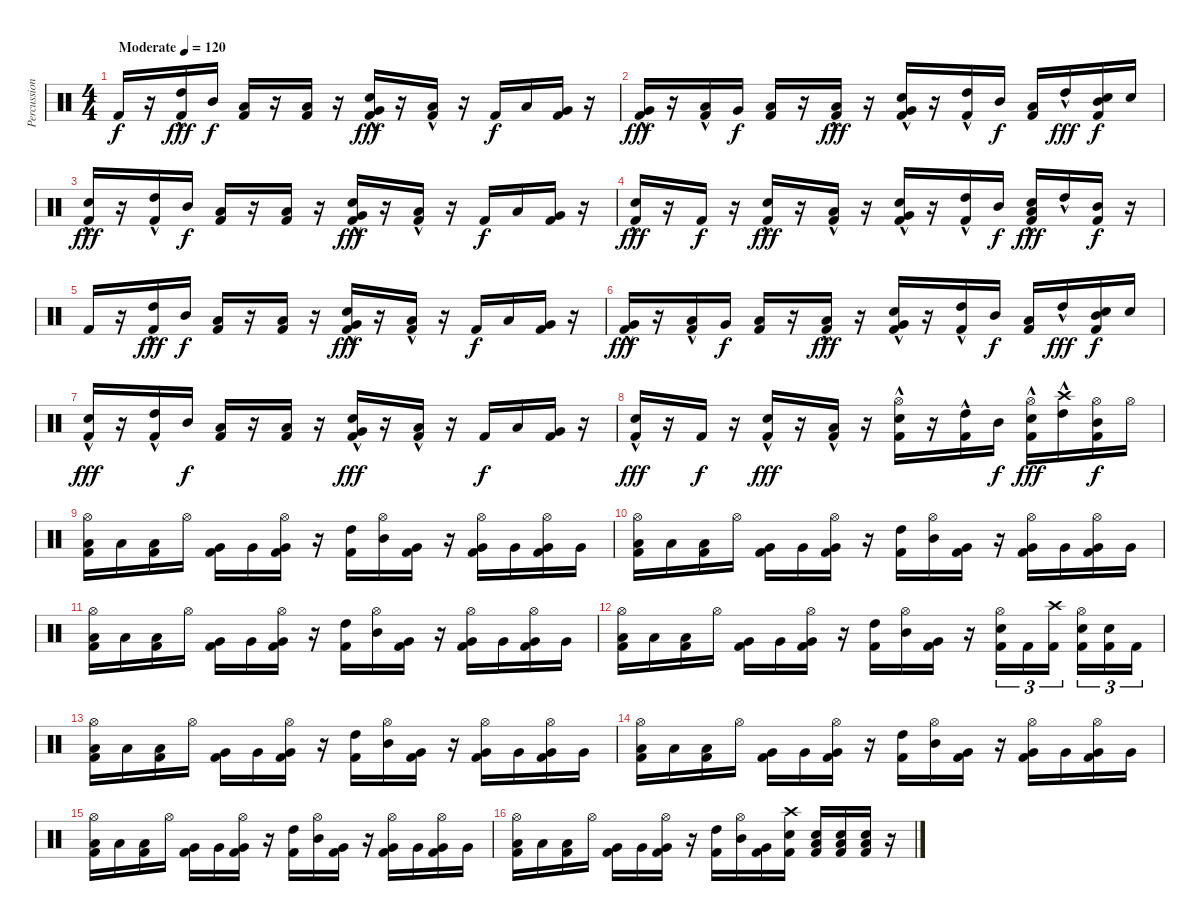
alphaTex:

\track ("Percussion" "Percussion") {instrument percussion}
\staff {score}
\articulation defaults
\ts (4 4)
\tempo (120 "Moderate")
\clef neutral
\ks c "Kick (hit) 2".16{dy f}
r.16 ("High Tom (hit)"{hac} "Kick (hit) 2").16{dy fff} "Mid Tom (hit)".16{dy f} ("Low Tom (hit)" "Kick (hit) 2").16 r.16 ("Low Tom (hit)" "Kick (hit) 2").16 r.16 ("Very Low Tom (hit)"{hac} "Electric Snare (hit)"{hac} "Kick (hit) 2").16{dy fff} r.16 ("Low Tom (hit)"{hac} "Kick (hit) 2").16 r.16 "Kick (hit) 2".16{dy f} "Low Floor Tom (hit)".16 ("Very Low Tom (hit)" "Kick (hit) 2").16 r.16 |
("Very Low Tom (hit)"{hac} "Kick (hit) 2").16{dy fff} r.16 ("Low Tom (hit)"{hac} "Kick (hit) 2").16 "Very Low Tom (hit)".16{dy f} ("Low Floor Tom (hit)" "Kick (hit) 2").16 r.16 ("Low Floor Tom (hit)"{hac} "Kick (hit) 2").16{dy fff} r.16 ("Very Low Tom (hit)"{hac} "Electric Snare (hit)"{hac} "Kick (hit) 2").16 r.16 ("High Tom (hit)"{hac} "Kick (hit) 2").16 "Mid Tom (hit)".16{dy f} ("Low Tom (hit)" "Kick (hit) 2").16 "High Tom (hit)"{hac}.16{dy fff} ("Mid Tom (hit)" "Electric Snare (hit)" "Kick (hit) 2").16{dy f} "Electric Snare (hit)".16 |
("Electric Snare (hit)"{hac} "Kick (hit) 2").16{dy fff} r.16 ("High Tom (hit)"{hac} "Kick (hit) 2").16 "Mid Tom (hit)".16{dy f} ("Low Tom (hit)" "Kick (hit) 2").16 r.16 ("Low Tom (hit)" "Kick (hit) 2").16 r.16 ("Very Low Tom (hit)"{hac} "Electric Snare (hit)"{hac} "Kick (hit) 2").16{dy fff} r.16 ("Low Tom (hit)"{hac} "Kick (hit) 2").16 r.16 "Kick (hit) 2".16{dy f} "Low Floor Tom (hit)".16 ("Very Low Tom (hit)" "Kick (hit) 2").16 r.16 |
("Electric Snare (hit)"{hac} "Kick (hit) 2").16{dy fff} r.16 "Kick (hit) 2".16{dy f} r.16 ("Electric Snare (hit)"{hac} "Kick (hit) 2").16{dy fff} r.16 ("Low Floor Tom (hit)"{hac} "Kick (hit) 2").16 r.16 ("Very Low Tom (hit)"{hac} "Electric Snare (hit)"{hac} "Kick (hit) 2").16 r.16 ("High Tom (hit)"{hac} "Kick (hit) 2").16 "Mid Tom (hit)".16{dy f} ("Low Tom (hit)" "Electric Snare (hit)"{hac} "Kick (hit) 2").16{dy fff} "High Tom (hit)"{hac}.16 ("Mid Tom (hit)" "Kick (hit) 2").16{dy f} r.16 |
"Kick (hit) 2".16 r.16 ("High Tom (hit)"{hac} "Kick (hit) 2").16{dy fff} "Mid Tom (hit)".16{dy f} ("Low Tom (hit)" "Kick (hit) 2").16 r.16 ("Low Tom (hit)" "Kick (hit) 2").16 r.16 ("Very Low Tom (hit)"{hac} "Electric Snare (hit)"{hac} "Kick (hit) 2").16{dy fff} r.16 ("Low Tom (hit)"{hac} "Kick (hit) 2").16 r.16 "Kick (hit) 2".16{dy f} "Low Floor Tom (hit)".16 ("Very Low Tom (hit)" "Kick (hit) 2").16 r.16 |
("Very Low Tom (hit)"{hac} "Kick (hit) 2").16{dy fff} r.16 ("Low Tom (hit)"{hac} "Kick (hit) 2").16 "Very Low Tom (hit)".16{dy f} ("Low Floor Tom (hit)" "Kick (hit) 2").16 r.16 ("Low Floor Tom (hit)"{hac} "Kick (hit) 2").16{dy fff} r.16 ("Very Low Tom (hit)"{hac} "Electric Snare (hit)"{hac} "Kick (hit) 2").16 r.16 ("High Tom (hit)"{hac} "Kick (hit) 2").16 "Mid Tom (hit)".16{dy f} ("Low Tom (hit)" "Kick (hit) 2").16 "High Tom (hit)"{hac}.16{dy fff} ("Mid Tom (hit)" "Electric Snare (hit)" "Kick (hit) 2").16{dy f} "Electric Snare (hit)".16 |
("Electric Snare (hit)"{hac} "Kick (hit) 2").16{dy fff} r.16 ("High Tom (hit)"{hac} "Kick (hit) 2").16 "Mid Tom (hit)".16{dy f} ("Low Tom (hit)" "Kick (hit) 2").16 r.16 ("Low Tom (hit)" "Kick (hit) 2").16 r.16 ("Very Low Tom (hit)"{hac} "Electric Snare (hit)"{hac} "Kick (hit) 2").16{dy fff} r.16 ("Low Tom (hit)"{hac} "Kick (hit) 2").16 r.16 "Kick (hit) 2".16{dy f} "Low Floor Tom (hit)".16 ("Very Low Tom (hit)" "Kick (hit) 2").16 r.16 |
("Electric Snare (hit)"{hac} "Kick (hit) 2").16{dy fff} r.16 "Kick (hit) 2".16{dy f} r.16 ("Electric Snare (hit)"{hac} "Kick (hit) 2").16{dy fff} r.16 ("Low Floor Tom (hit)"{hac} "Kick (hit) 2").16 r.16 ("Electric Snare (hit)"{hac} "Hi-Hat (open)" "Kick (hit) 2").16 r.16 ("High Tom (hit)"{hac} "Kick (hit) 2").16 "Mid Tom (hit)".16{dy f} ("Electric Snare (hit)"{hac} "Hi-Hat (open)" "Kick (hit) 2").16{dy fff} ("High Tom (hit)"{hac} "Crash high (hit)").16 ("Mid Tom (hit)" "Hi-Hat (open)" "Kick (hit) 2").16{dy f} "Hi-Hat (open)".16 |
("Low Tom (hit)" "Hi-Hat (open)" "Kick (hit) 2").16 "Low Tom (hit)".16 ("Low Tom (hit)" "Kick (hit) 2").16 "Hi-Hat (open)".16 ("Very Low Tom (hit)" "Kick (hit) 2").16 "Very Low Tom (hit)".16 ("Very Low Tom (hit)" "Hi-Hat (open)" "Kick (hit) 2").16 r.16 ("High Tom (hit)" "Kick (hit) 2").16 ("Mid Tom (hit)" "Hi-Hat (open)").16 ("Very Low Tom (hit)" "Kick (hit) 2").16 r.16 ("Very Low Tom (hit)" "Hi-Hat (open)" "Kick (hit) 2").16 "Very Low Tom (hit)".16 ("Very Low Tom (hit)" "Hi-Hat (open)" "Kick (hit) 2").16 "Very Low Tom (hit)".16 |
("Low Tom (hit)" "Hi-Hat (open)" "Kick (hit) 2").16 "Low Tom (hit)".16 ("Low Tom (hit)" "Kick (hit) 2").16 "Hi-Hat (open)".16 ("Very Low Tom (hit)" "Kick (hit) 2").16 "Very Low Tom (hit)".16 ("Very Low Tom (hit)" "Hi-Hat (open)" "Kick (hit) 2").16 r.16 ("High Tom (hit)" "Kick (hit) 2").16 ("Mid Tom (hit)" "Hi-Hat (open)").16 ("Very Low Tom (hit)" "Kick (hit) 2").16 r.16 ("Very Low Tom (hit)" "Hi-Hat (open)" "Kick (hit) 2").16 "Very Low Tom (hit)".16 ("Very Low Tom (hit)" "Hi-Hat (open)" "Kick (hit) 2").16 "Very Low Tom (hit)".16 |
("Low Tom (hit)" "Hi-Hat (open)" "Kick (hit) 2").16 "Low Tom (hit)".16 ("Low Tom (hit)" "Kick (hit) 2").16 "Hi-Hat (open)".16 ("Very Low Tom (hit)" "Kick (hit) 2").16 "Very Low Tom (hit)".16 ("Very Low Tom (hit)" "Hi-Hat (open)" "Kick (hit) 2").16 r.16 ("High Tom (hit)" "Kick (hit) 2").16 ("Mid Tom (hit)" "Hi-Hat (open)").16 ("Very Low Tom (hit)" "Kick (hit) 2").16 r.16 ("Very Low Tom (hit)" "Hi-Hat (open)" "Kick (hit) 2").16 "Very Low Tom (hit)".16 ("Very Low Tom (hit)" "Hi-Hat (open)" "Kick (hit) 2").16 "Very Low Tom (hit)".16 |
("Low Tom (hit)" "Hi-Hat (open)" "Kick (hit) 2").16 "Low Tom (hit)".16 ("Low Tom (hit)" "Kick (hit) 2").16 "Hi-Hat (open)".16 ("Very Low Tom (hit)" "Kick (hit) 2").16 "Very Low Tom (hit)".16 ("Very Low Tom (hit)" "Hi-Hat (open)" "Kick (hit) 2").16 r.16 ("High Tom (hit)" "Kick (hit) 2").16 ("Mid Tom (hit)" "Hi-Hat (open)").16 ("Very Low Tom (hit)" "Kick (hit) 2").16 r.16 ("Electric Snare (hit)" "Hi-Hat (open)" "Kick (hit) 2").16{tu (3 2)} "Kick (hit) 2".16{tu (3 2)} ("Crash high (hit)" "Kick (hit) 2").16{tu (3 2) beam splitsecondary} ("Electric Snare (hit)" "Hi-Hat (open)" "Kick (hit) 2").16{tu (3 2)} ("Electric Snare (hit)" "Kick (hit) 2").16{tu (3 2)} "Kick (hit) 2".16{tu (3 2)} |
("Low Tom (hit)" "Hi-Hat (open)" "Kick (hit) 2").16 "Low Tom (hit)".16 ("Low Tom (hit)" "Kick (hit) 2").16 "Hi-Hat (open)".16 ("Very Low Tom (hit)" "Kick (hit) 2").16 "Very Low Tom (hit)".16 ("Very Low Tom (hit)" "Hi-Hat (open)" "Kick (hit) 2").16 r.16 ("High Tom (hit)" "Kick (hit) 2").16 ("Mid Tom (hit)" "Hi-Hat (open)").16 ("Very Low Tom (hit)" "Kick (hit) 2").16 r.16 ("Very Low Tom (hit)" "Hi-Hat (open)" "Kick (hit) 2").16 "Very Low Tom (hit)".16 ("Very Low Tom (hit)" "Hi-Hat (open)" "Kick (hit) 2").16 "Very Low Tom (hit)".16 |
("Low Tom (hit)" "Hi-Hat (open)" "Kick (hit) 2").16 "Low Tom (hit)".16 ("Low Tom (hit)" "Kick (hit) 2").16 "Hi-Hat (open)".16 ("Very Low Tom (hit)" "Kick (hit) 2").16 "Very Low Tom (hit)".16 ("Very Low Tom (hit)" "Hi-Hat (open)" "Kick (hit) 2").16 r.16 ("High Tom (hit)" "Kick (hit) 2").16 ("Mid Tom (hit)" "Hi-Hat (open)").16 ("Very Low Tom (hit)" "Kick (hit) 2").16 r.16 ("Very Low Tom (hit)" "Hi-Hat (open)" "Kick (hit) 2").16 "Very Low Tom (hit)".16 ("Very Low Tom (hit)" "Hi-Hat (open)" "Kick (hit) 2").16 "Very Low Tom (hit)".16 |
("Low Tom (hit)" "Hi-Hat (open)" "Kick (hit) 2").16 "Low Tom (hit)".16 ("Low Tom (hit)" "Kick (hit) 2").16 "Hi-Hat (open)".16 ("Very Low Tom (hit)" "Kick (hit) 2").16 "Very Low Tom (hit)".16 ("Very Low Tom (hit)" "Hi-Hat (open)" "Kick (hit) 2").16 r.16 ("High Tom (hit)" "Kick (hit) 2").16 ("Mid Tom (hit)" "Hi-Hat (open)").16 ("Very Low Tom (hit)" "Kick (hit) 2").16 r.16 ("Very Low Tom (hit)" "Hi-Hat (open)" "Kick (hit) 2").16 "Very Low Tom (hit)".16 ("Very Low Tom (hit)" "Hi-Hat (open)" "Kick (hit) 2").16 "Very Low Tom (hit)".16 |
("Low Tom (hit)" "Hi-Hat (open)" "Kick (hit) 2").16 "Low Tom (hit)".16 ("Low Tom (hit)" "Kick (hit) 2").16 "Hi-Hat (open)".16 ("Very Low Tom (hit)" "Kick (hit) 2").16 "Very Low Tom (hit)".16 ("Very Low Tom (hit)" "Hi-Hat (open)" "Kick (hit) 2").16 r.16 ("High Tom (hit)" "Kick (hit) 2").16 ("Mid Tom (hit)" "Hi-Hat (open)").16 ("Very Low Tom (hit)" "Kick (hit) 2").16 ("Electric Snare (hit)" "Crash high (hit)" "Kick (hit) 2").16 ("Low Floor Tom (hit)" "Electric Snare (hit)" "Kick (hit) 2").16 ("Low Floor Tom (hit)" "Electric Snare (hit)" "Kick (hit) 2").16 ("Low Floor Tom (hit)" "Electric Snare (hit)" "Kick (hit) 2").16 r.16
